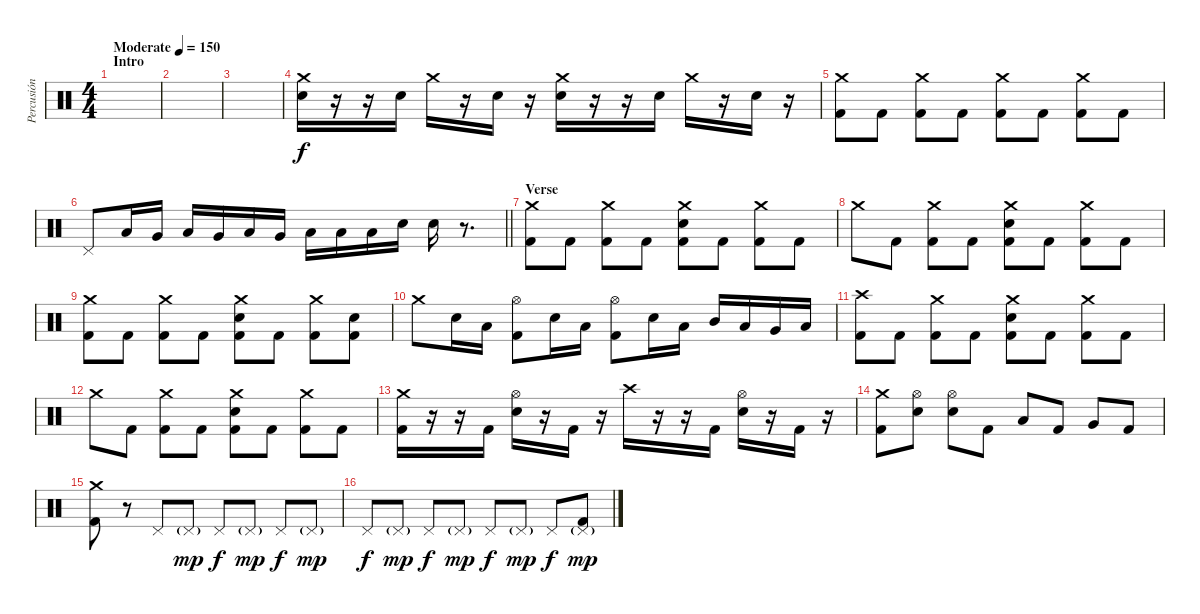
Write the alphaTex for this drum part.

\track ("Percusión" "Percusión") {instrument percussion}
\staff {score}
\articulation defaults
\ts (4 4)
\section ("" "Intro")
\tempo (150 "Moderate")
\clef neutral
\ks c
|
|
|
("Crash medium (hit)" "Electric Snare (hit)").16 r.16 r.16 "Electric Snare (hit)".16 "Crash medium (hit)".16 r.16 "Electric Snare (hit)".16 r.16 ("Crash medium (hit)" "Electric Snare (hit)").16 r.16 r.16 "Electric Snare (hit)".16 "Crash medium (hit)".16 r.16 "Electric Snare (hit)".16 r.16 |
("Crash medium (hit)" "Kick (hit) 2").8 "Kick (hit) 2".8 ("Crash medium (hit)" "Kick (hit) 2").8 "Kick (hit) 2".8 ("Crash medium (hit)" "Kick (hit) 2").8 "Kick (hit) 2".8 ("Crash medium (hit)" "Kick (hit) 2").8 "Kick (hit) 2".8 |
\barLineRight lightlight "Pedal Hi-Hat (hit)".8 "Low Tom (hit)".16 "Very Low Tom (hit)".16 "Low Tom (hit)".16 "Very Low Tom (hit)".16 "Low Floor Tom (hit)".16 "Very Low Tom (hit)".16 "Low Floor Tom (hit)".16 "Low Floor Tom (hit)".16 "Low Floor Tom (hit)".16 "Electric Snare (hit)".16 "Electric Snare (hit)".16
r.8{d} |
\section ("" "Verse")
("Crash medium (hit)" "Kick (hit) 2").8 "Kick (hit) 2".8 ("Crash medium (hit)" "Kick (hit) 2").8 "Kick (hit) 2".8 ("Crash medium (hit)" "Electric Snare (hit)" "Kick (hit) 2").8 "Kick (hit) 2".8 ("Crash medium (hit)" "Kick (hit) 2").8 "Kick (hit) 2".8 |
"Crash medium (hit)".8 "Kick (hit) 2".8 ("Crash medium (hit)" "Kick (hit) 2").8 "Kick (hit) 2".8 ("Crash medium (hit)" "Electric Snare (hit)" "Kick (hit) 2").8 "Kick (hit) 2".8 ("Crash medium (hit)" "Kick (hit) 2").8 "Kick (hit) 2".8 |
("Crash medium (hit)" "Kick (hit) 2").8 "Kick (hit) 2".8 ("Crash medium (hit)" "Kick (hit) 2").8 "Kick (hit) 2".8 ("Crash medium (hit)" "Electric Snare (hit)" "Kick (hit) 2").8 "Kick (hit) 2".8 ("Crash medium (hit)" "Kick (hit) 2").8 ("Electric Snare (hit)" "Kick (hit) 2").8 |
"Crash medium (hit)".8 "Electric Snare (hit)".16 "Low Tom (hit)".16 ("Hi-Hat (open)" "Kick (hit) 2").8 "Electric Snare (hit)".16 "Low Tom (hit)".16 ("Hi-Hat (open)" "Kick (hit) 2").8 "Electric Snare (hit)".16 "Low Tom (hit)".16 "Mid Tom (hit)".16 "Low Tom (hit)".16 "Very Low Tom (hit)".16 "Low Floor Tom (hit)".16 |
("Crash high (hit)" "Kick (hit) 2").8 "Kick (hit) 2".8 ("Crash medium (hit)" "Kick (hit) 2").8 "Kick (hit) 2".8 ("Crash medium (hit)" "Electric Snare (hit)" "Kick (hit) 2").8 "Kick (hit) 2".8 ("Crash medium (hit)" "Kick (hit) 2").8 "Kick (hit) 2".8 |
"Crash medium (hit)".8 "Kick (hit) 2".8 ("Crash medium (hit)" "Kick (hit) 2").8 "Kick (hit) 2".8 ("Crash medium (hit)" "Electric Snare (hit)" "Kick (hit) 2").8 "Kick (hit) 2".8 ("Crash medium (hit)" "Kick (hit) 2").8 "Kick (hit) 2".8 |
("Crash medium (hit)" "Kick (hit) 2").16 r.16 r.16 "Kick (hit) 2".16 ("Hi-Hat (open)" "Electric Snare (hit)").16 r.16 "Kick (hit) 2".16 r.16 "Crash high (hit)".16 r.16 r.16 "Kick (hit) 2".16 ("Hi-Hat (open)" "Electric Snare (hit)").16 r.16 "Kick (hit) 2".16 r.16 |
("Crash medium (hit)" "Kick (hit) 2").8 ("Hi-Hat (open)" "Electric Snare (hit)").8 ("Hi-Hat (open)" "Electric Snare (hit)").8 "Kick (hit) 2".8 "Low Tom (hit)".8 "Kick (hit) 2".8 "Very Low Tom (hit)".8 "Kick (hit) 2".8 |
("Crash medium (hit)" "Kick (hit) 2").8 r.8 "Pedal Hi-Hat (hit)".8 "Pedal Hi-Hat (hit)"{g}.8{dy mp} "Pedal Hi-Hat (hit)".8{dy f} "Pedal Hi-Hat (hit)"{g}.8{dy mp} "Pedal Hi-Hat (hit)".8{dy f} "Pedal Hi-Hat (hit)"{g}.8{dy mp} |
"Pedal Hi-Hat (hit)".8{dy f} "Pedal Hi-Hat (hit)"{g}.8{dy mp} "Pedal Hi-Hat (hit)".8{dy f} "Pedal Hi-Hat (hit)"{g}.8{dy mp} "Pedal Hi-Hat (hit)".8{dy f} "Pedal Hi-Hat (hit)"{g}.8{dy mp} "Pedal Hi-Hat (hit)".8{dy f} ("Pedal Hi-Hat (hit)"{g} "Kick (hit) 2").8{dy mp}
